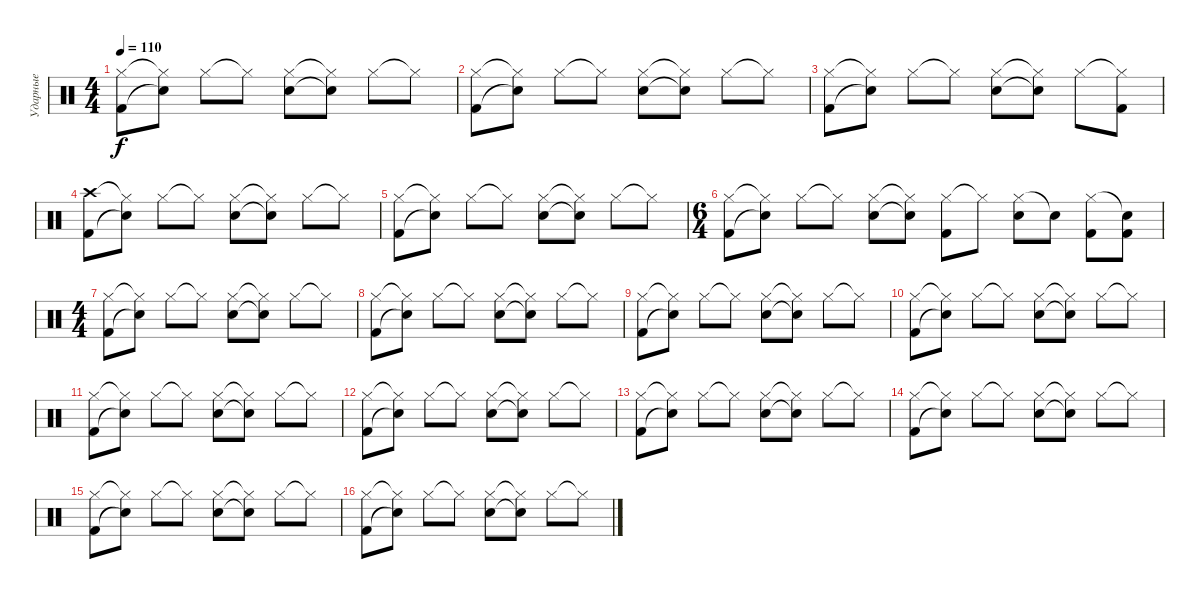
\track ("Ударные" "Ударные") {instrument percussion}
\staff {score}
\articulation defaults
\ts (4 4)
\tempo 110
\clef neutral
\ks c
("Hi-Hat (closed)" "Kick (hit) 2").8{dy f} ("Hi-Hat (closed)"{t} "Snare (hit)"{t}).8 "Hi-Hat (closed)".8 "Hi-Hat (closed)"{t}.8 ("Hi-Hat (closed)" "Snare (hit) 2").8 ("Hi-Hat (closed)"{t} "Snare (hit)"{t}).8 "Hi-Hat (closed)".8 "Hi-Hat (closed)"{t}.8 |
("Hi-Hat (closed)" "Kick (hit) 2").8 ("Hi-Hat (closed)"{t} "Snare (hit)"{t}).8 "Hi-Hat (closed)".8 "Hi-Hat (closed)"{t}.8 ("Hi-Hat (closed)" "Snare (hit) 2").8 ("Hi-Hat (closed)"{t} "Snare (hit)"{t}).8 "Hi-Hat (closed)".8 "Hi-Hat (closed)"{t}.8 |
("Hi-Hat (closed)" "Kick (hit) 2").8 ("Hi-Hat (closed)"{t} "Snare (hit)"{t}).8 "Hi-Hat (closed)".8 "Hi-Hat (closed)"{t}.8 ("Hi-Hat (closed)" "Snare (hit) 2").8 ("Hi-Hat (closed)"{t} "Snare (hit)"{t}).8 "Hi-Hat (closed)".8 ("Hi-Hat (closed)"{t} "Kick (hit) 2").8 |
("Crash high (hit)" "Kick (hit) 2").8 ("Hi-Hat (closed)"{t} "Snare (hit)"{t}).8 "Hi-Hat (closed)".8 "Hi-Hat (closed)"{t}.8 ("Hi-Hat (closed)" "Snare (hit) 2").8 ("Hi-Hat (closed)"{t} "Snare (hit)"{t}).8 "Hi-Hat (closed)".8 "Hi-Hat (closed)"{t}.8 |
("Hi-Hat (closed)" "Kick (hit) 2").8 ("Hi-Hat (closed)"{t} "Snare (hit)"{t}).8 "Hi-Hat (closed)".8 "Hi-Hat (closed)"{t}.8 ("Hi-Hat (closed)" "Snare (hit) 2").8 ("Hi-Hat (closed)"{t} "Snare (hit)"{t}).8 "Hi-Hat (closed)".8 "Hi-Hat (closed)"{t}.8 |
\ts (6 4)
("Hi-Hat (closed)" "Kick (hit) 2").8 ("Hi-Hat (closed)"{t} "Snare (hit)"{t}).8 "Hi-Hat (closed)".8 "Hi-Hat (closed)"{t}.8 ("Hi-Hat (closed)" "Snare (hit) 2").8 ("Hi-Hat (closed)"{t} "Snare (hit)"{t}).8 ("Hi-Hat (closed)" "Kick (hit) 2").8 "Hi-Hat (closed)"{t}.8 ("Hi-Hat (closed)" "Snare (hit) 2").8 "Snare (hit)"{t}.8 ("Hi-Hat (closed)" "Kick (hit) 2").8 ("Snare (hit)"{t} "Kick (hit) 2").8 |
\ts (4 4)
("Hi-Hat (closed)" "Kick (hit) 2").8 ("Hi-Hat (closed)"{t} "Snare (hit)"{t}).8 "Hi-Hat (closed)".8 "Hi-Hat (closed)"{t}.8 ("Hi-Hat (closed)" "Snare (hit) 2").8 ("Hi-Hat (closed)"{t} "Snare (hit)"{t}).8 "Hi-Hat (closed)".8 "Hi-Hat (closed)"{t}.8 |
("Hi-Hat (closed)" "Kick (hit) 2").8 ("Hi-Hat (closed)"{t} "Snare (hit)"{t}).8 "Hi-Hat (closed)".8 "Hi-Hat (closed)"{t}.8 ("Hi-Hat (closed)" "Snare (hit) 2").8 ("Hi-Hat (closed)"{t} "Snare (hit)"{t}).8 "Hi-Hat (closed)".8 "Hi-Hat (closed)"{t}.8 |
("Hi-Hat (closed)" "Kick (hit) 2").8 ("Hi-Hat (closed)"{t} "Snare (hit)"{t}).8 "Hi-Hat (closed)".8 "Hi-Hat (closed)"{t}.8 ("Hi-Hat (closed)" "Snare (hit) 2").8 ("Hi-Hat (closed)"{t} "Snare (hit)"{t}).8 "Hi-Hat (closed)".8 "Hi-Hat (closed)"{t}.8 |
("Hi-Hat (closed)" "Kick (hit) 2").8 ("Hi-Hat (closed)"{t} "Snare (hit)"{t}).8 "Hi-Hat (closed)".8 "Hi-Hat (closed)"{t}.8 ("Hi-Hat (closed)" "Snare (hit) 2").8 ("Hi-Hat (closed)"{t} "Snare (hit)"{t}).8 "Hi-Hat (closed)".8 "Hi-Hat (closed)"{t}.8 |
("Hi-Hat (closed)" "Kick (hit) 2").8 ("Hi-Hat (closed)"{t} "Snare (hit)"{t}).8 "Hi-Hat (closed)".8 "Hi-Hat (closed)"{t}.8 ("Hi-Hat (closed)" "Snare (hit) 2").8 ("Hi-Hat (closed)"{t} "Snare (hit)"{t}).8 "Hi-Hat (closed)".8 "Hi-Hat (closed)"{t}.8 |
("Hi-Hat (closed)" "Kick (hit) 2").8 ("Hi-Hat (closed)"{t} "Snare (hit)"{t}).8 "Hi-Hat (closed)".8 "Hi-Hat (closed)"{t}.8 ("Hi-Hat (closed)" "Snare (hit) 2").8 ("Hi-Hat (closed)"{t} "Snare (hit)"{t}).8 "Hi-Hat (closed)".8 "Hi-Hat (closed)"{t}.8 |
("Hi-Hat (closed)" "Kick (hit) 2").8 ("Hi-Hat (closed)"{t} "Snare (hit)"{t}).8 "Hi-Hat (closed)".8 "Hi-Hat (closed)"{t}.8 ("Hi-Hat (closed)" "Snare (hit) 2").8 ("Hi-Hat (closed)"{t} "Snare (hit)"{t}).8 "Hi-Hat (closed)".8 "Hi-Hat (closed)"{t}.8 |
("Hi-Hat (closed)" "Kick (hit) 2").8 ("Hi-Hat (closed)"{t} "Snare (hit)"{t}).8 "Hi-Hat (closed)".8 "Hi-Hat (closed)"{t}.8 ("Hi-Hat (closed)" "Snare (hit) 2").8 ("Hi-Hat (closed)"{t} "Snare (hit)"{t}).8 "Hi-Hat (closed)".8 "Hi-Hat (closed)"{t}.8 |
("Hi-Hat (closed)" "Kick (hit) 2").8 ("Hi-Hat (closed)"{t} "Snare (hit)"{t}).8 "Hi-Hat (closed)".8 "Hi-Hat (closed)"{t}.8 ("Hi-Hat (closed)" "Snare (hit) 2").8 ("Hi-Hat (closed)"{t} "Snare (hit)"{t}).8 "Hi-Hat (closed)".8 "Hi-Hat (closed)"{t}.8 |
("Hi-Hat (closed)" "Kick (hit) 2").8 ("Hi-Hat (closed)"{t} "Snare (hit)"{t}).8 "Hi-Hat (closed)".8 "Hi-Hat (closed)"{t}.8 ("Hi-Hat (closed)" "Snare (hit) 2").8 ("Hi-Hat (closed)"{t} "Snare (hit)"{t}).8 "Hi-Hat (closed)".8 "Hi-Hat (closed)"{t}.8
